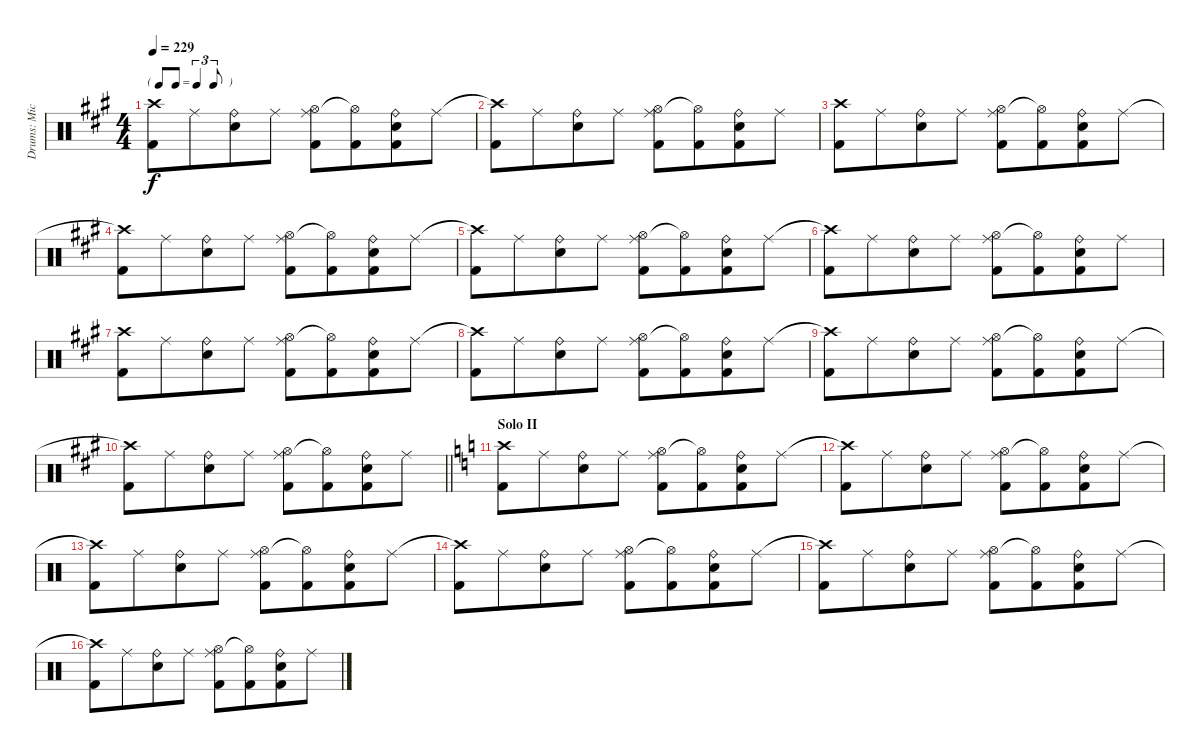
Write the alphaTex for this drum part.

\track ("Drums: Mick" "Drums: Mic") {instrument percussion}
\staff {score}
\articulation defaults
\ts (4 4)
\tf triplet8th
\tempo 229
\clef neutral
\ks a
("Crash high (hit)"{t} "Kick (hit) 2").8{dy f} "Ride (middle)".8{beam merge} ("Ride (bell)" "Snare (hit) 2").8 "Ride (middle)".8 ("Ride (middle)" "Hi-Hat (open)" "Kick (hit) 2").8 ("Hi-Hat (open)"{t} "Kick (hit) 2").8{beam merge} ("Ride (bell)" "Snare (hit) 2" "Kick (hit) 2").8 "Ride (middle)".8 |
("Crash high (hit)"{t} "Kick (hit) 2").8 "Ride (middle)".8{beam merge} ("Ride (bell)" "Snare (hit) 2").8 "Ride (middle)".8 ("Ride (middle)" "Hi-Hat (open)" "Kick (hit) 2").8 ("Hi-Hat (open)"{t} "Kick (hit) 2").8{beam merge} ("Ride (bell)" "Snare (hit) 2" "Kick (hit) 2").8 "Ride (middle)".8 |
("Crash high (hit)" "Kick (hit) 2").8 "Ride (middle)".8{beam merge} ("Ride (bell)" "Snare (hit) 2").8 "Ride (middle)".8 ("Ride (middle)" "Hi-Hat (open)" "Kick (hit) 2").8 ("Hi-Hat (open)"{t} "Kick (hit) 2").8{beam merge} ("Ride (bell)" "Snare (hit) 2" "Kick (hit) 2").8 "Ride (middle)".8 |
("Crash high (hit)"{t} "Kick (hit) 2").8 "Ride (middle)".8{beam merge} ("Ride (bell)" "Snare (hit) 2").8 "Ride (middle)".8 ("Ride (middle)" "Hi-Hat (open)" "Kick (hit) 2").8 ("Hi-Hat (open)"{t} "Kick (hit) 2").8{beam merge} ("Ride (bell)" "Snare (hit) 2" "Kick (hit) 2").8 "Ride (middle)".8 |
("Crash high (hit)"{t} "Kick (hit) 2").8 "Ride (middle)".8{beam merge} ("Ride (bell)" "Snare (hit) 2").8 "Ride (middle)".8 ("Ride (middle)" "Hi-Hat (open)" "Kick (hit) 2").8 ("Hi-Hat (open)"{t} "Kick (hit) 2").8{beam merge} ("Ride (bell)" "Snare (hit) 2" "Kick (hit) 2").8 "Ride (middle)".8 |
("Crash high (hit)"{t} "Kick (hit) 2").8 "Ride (middle)".8{beam merge} ("Ride (bell)" "Snare (hit) 2").8 "Ride (middle)".8 ("Ride (middle)" "Hi-Hat (open)" "Kick (hit) 2").8 ("Hi-Hat (open)"{t} "Kick (hit) 2").8{beam merge} ("Ride (bell)" "Snare (hit) 2" "Kick (hit) 2").8 "Ride (middle)".8 |
("Crash high (hit)" "Kick (hit) 2").8 "Ride (middle)".8{beam merge} ("Ride (bell)" "Snare (hit) 2").8 "Ride (middle)".8 ("Ride (middle)" "Hi-Hat (open)" "Kick (hit) 2").8 ("Hi-Hat (open)"{t} "Kick (hit) 2").8{beam merge} ("Ride (bell)" "Snare (hit) 2" "Kick (hit) 2").8 "Ride (middle)".8 |
("Crash high (hit)"{t} "Kick (hit) 2").8 "Ride (middle)".8{beam merge} ("Ride (bell)" "Snare (hit) 2").8 "Ride (middle)".8 ("Ride (middle)" "Hi-Hat (open)" "Kick (hit) 2").8 ("Hi-Hat (open)"{t} "Kick (hit) 2").8{beam merge} ("Ride (bell)" "Snare (hit) 2" "Kick (hit) 2").8 "Ride (middle)".8 |
("Crash high (hit)"{t} "Kick (hit) 2").8 "Ride (middle)".8{beam merge} ("Ride (bell)" "Snare (hit) 2").8 "Ride (middle)".8 ("Ride (middle)" "Hi-Hat (open)" "Kick (hit) 2").8 ("Hi-Hat (open)"{t} "Kick (hit) 2").8{beam merge} ("Ride (bell)" "Snare (hit) 2" "Kick (hit) 2").8 "Ride (middle)".8 |
\barLineRight lightlight
("Crash high (hit)"{t} "Kick (hit) 2").8 "Ride (middle)".8{beam merge} ("Ride (bell)" "Snare (hit) 2").8 "Ride (middle)".8 ("Ride (middle)" "Hi-Hat (open)" "Kick (hit) 2").8 ("Hi-Hat (open)"{t} "Kick (hit) 2").8{beam merge} ("Ride (bell)" "Snare (hit) 2" "Kick (hit) 2").8 "Ride (middle)".8 |
\section ("" "Solo II")
\ks c
("Crash high (hit)" "Kick (hit) 2").8 "Ride (middle)".8{beam merge} ("Ride (bell)" "Snare (hit) 2").8 "Ride (middle)".8 ("Ride (middle)" "Hi-Hat (open)" "Kick (hit) 2").8 ("Hi-Hat (open)"{t} "Kick (hit) 2").8{beam merge} ("Ride (bell)" "Snare (hit) 2" "Kick (hit) 2").8 "Ride (middle)".8 |
("Crash high (hit)"{t} "Kick (hit) 2").8 "Ride (middle)".8{beam merge} ("Ride (bell)" "Snare (hit) 2").8 "Ride (middle)".8 ("Ride (middle)" "Hi-Hat (open)" "Kick (hit) 2").8 ("Hi-Hat (open)"{t} "Kick (hit) 2").8{beam merge} ("Ride (bell)" "Snare (hit) 2" "Kick (hit) 2").8 "Ride (middle)".8 |
("Crash high (hit)"{t} "Kick (hit) 2").8 "Ride (middle)".8{beam merge} ("Ride (bell)" "Snare (hit) 2").8 "Ride (middle)".8 ("Ride (middle)" "Hi-Hat (open)" "Kick (hit) 2").8 ("Hi-Hat (open)"{t} "Kick (hit) 2").8{beam merge} ("Ride (bell)" "Snare (hit) 2" "Kick (hit) 2").8 "Ride (middle)".8 |
("Crash high (hit)"{t} "Kick (hit) 2").8 "Ride (middle)".8{beam merge} ("Ride (bell)" "Snare (hit) 2").8 "Ride (middle)".8 ("Ride (middle)" "Hi-Hat (open)" "Kick (hit) 2").8 ("Hi-Hat (open)"{t} "Kick (hit) 2").8{beam merge} ("Ride (bell)" "Snare (hit) 2" "Kick (hit) 2").8 "Ride (middle)".8 |
("Crash high (hit)"{t} "Kick (hit) 2").8 "Ride (middle)".8{beam merge} ("Ride (bell)" "Snare (hit) 2").8 "Ride (middle)".8 ("Ride (middle)" "Hi-Hat (open)" "Kick (hit) 2").8 ("Hi-Hat (open)"{t} "Kick (hit) 2").8{beam merge} ("Ride (bell)" "Snare (hit) 2" "Kick (hit) 2").8 "Ride (middle)".8 |
("Crash high (hit)"{t} "Kick (hit) 2").8 "Ride (middle)".8{beam merge} ("Ride (bell)" "Snare (hit) 2").8 "Ride (middle)".8 ("Ride (middle)" "Hi-Hat (open)" "Kick (hit) 2").8 ("Hi-Hat (open)"{t} "Kick (hit) 2").8{beam merge} ("Ride (bell)" "Snare (hit) 2" "Kick (hit) 2").8 "Ride (middle)".8
